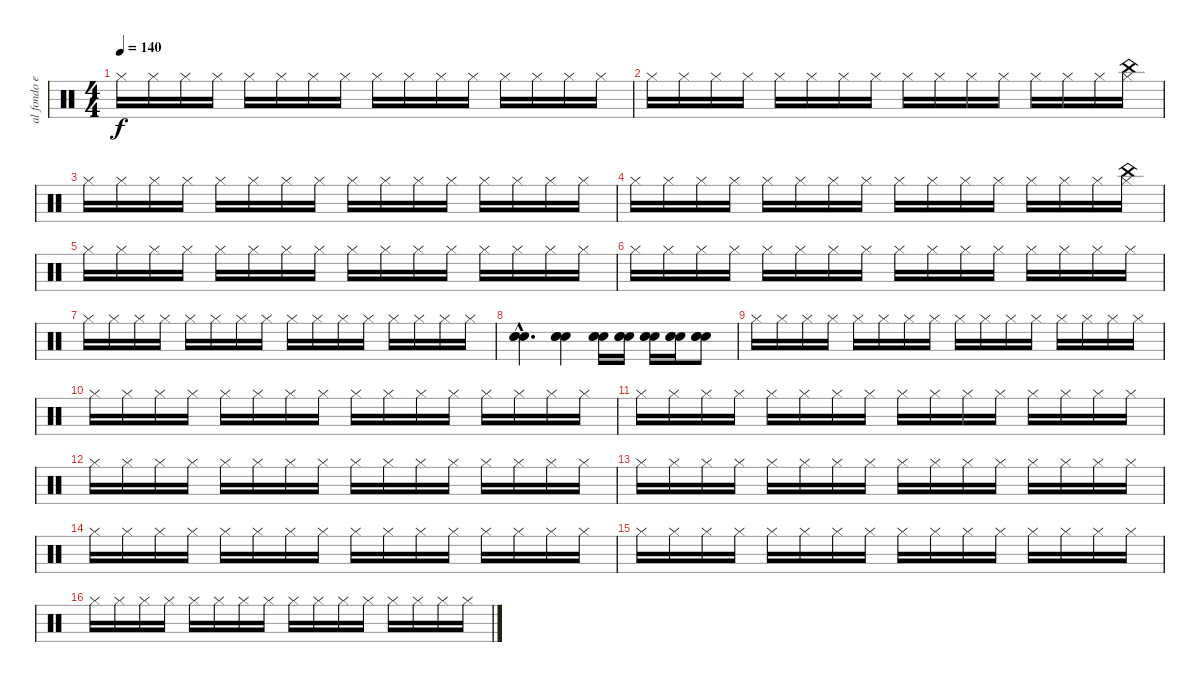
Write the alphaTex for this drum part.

\track ("al fondo en la bateria Mr Pedro Andreu" "al fondo e") {instrument percussion}
\staff {score}
\articulation defaults
\ts (4 4)
\tempo 140
\clef neutral
\ks c "Hi-Hat (closed)".16{dy f} "Hi-Hat (closed)".16 "Hi-Hat (closed)".16 "Hi-Hat (closed)".16 "Hi-Hat (closed)".16 "Hi-Hat (closed)".16 "Hi-Hat (closed)".16 "Hi-Hat (closed)".16 "Hi-Hat (closed)".16 "Hi-Hat (closed)".16 "Hi-Hat (closed)".16 "Hi-Hat (closed)".16 "Hi-Hat (closed)".16 "Hi-Hat (closed)".16 "Hi-Hat (closed)".16 "Hi-Hat (closed)".16
|
"Hi-Hat (closed)".16 "Hi-Hat (closed)".16 "Hi-Hat (closed)".16 "Hi-Hat (closed)".16 "Hi-Hat (closed)".16 "Hi-Hat (closed)".16 "Hi-Hat (closed)".16 "Hi-Hat (closed)".16 "Hi-Hat (closed)".16 "Hi-Hat (closed)".16 "Hi-Hat (closed)".16 "Hi-Hat (closed)".16 "Hi-Hat (closed)".16 "Hi-Hat (closed)".16 "Hi-Hat (closed)".16 ("Hi-Hat (closed)" "China (hit)").16 |
"Hi-Hat (closed)".16 "Hi-Hat (closed)".16 "Hi-Hat (closed)".16 "Hi-Hat (closed)".16 "Hi-Hat (closed)".16 "Hi-Hat (closed)".16 "Hi-Hat (closed)".16 "Hi-Hat (closed)".16 "Hi-Hat (closed)".16 "Hi-Hat (closed)".16 "Hi-Hat (closed)".16 "Hi-Hat (closed)".16 "Hi-Hat (closed)".16 "Hi-Hat (closed)".16 "Hi-Hat (closed)".16 "Hi-Hat (closed)".16 |
"Hi-Hat (closed)".16 "Hi-Hat (closed)".16 "Hi-Hat (closed)".16 "Hi-Hat (closed)".16 "Hi-Hat (closed)".16 "Hi-Hat (closed)".16 "Hi-Hat (closed)".16 "Hi-Hat (closed)".16 "Hi-Hat (closed)".16 "Hi-Hat (closed)".16 "Hi-Hat (closed)".16 "Hi-Hat (closed)".16 "Hi-Hat (closed)".16 "Hi-Hat (closed)".16 "Hi-Hat (closed)".16 ("Hi-Hat (closed)" "China (hit)").16 |
"Hi-Hat (closed)".16 "Hi-Hat (closed)".16 "Hi-Hat (closed)".16 "Hi-Hat (closed)".16 "Hi-Hat (closed)".16 "Hi-Hat (closed)".16 "Hi-Hat (closed)".16 "Hi-Hat (closed)".16 "Hi-Hat (closed)".16 "Hi-Hat (closed)".16 "Hi-Hat (closed)".16 "Hi-Hat (closed)".16 "Hi-Hat (closed)".16 "Hi-Hat (closed)".16 "Hi-Hat (closed)".16 "Hi-Hat (closed)".16 |
"Hi-Hat (closed)".16 "Hi-Hat (closed)".16 "Hi-Hat (closed)".16 "Hi-Hat (closed)".16 "Hi-Hat (closed)".16 "Hi-Hat (closed)".16 "Hi-Hat (closed)".16 "Hi-Hat (closed)".16 "Hi-Hat (closed)".16 "Hi-Hat (closed)".16 "Hi-Hat (closed)".16 "Hi-Hat (closed)".16 "Hi-Hat (closed)".16 "Hi-Hat (closed)".16 "Hi-Hat (closed)".16 "Hi-Hat (closed)".16 |
"Hi-Hat (closed)".16 "Hi-Hat (closed)".16 "Hi-Hat (closed)".16 "Hi-Hat (closed)".16 "Hi-Hat (closed)".16 "Hi-Hat (closed)".16 "Hi-Hat (closed)".16 "Hi-Hat (closed)".16 "Hi-Hat (closed)".16 "Hi-Hat (closed)".16 "Hi-Hat (closed)".16 "Hi-Hat (closed)".16 "Hi-Hat (closed)".16 "Hi-Hat (closed)".16 "Hi-Hat (closed)".16 "Hi-Hat (closed)".16 |
("Snare (hit) 2"{hac} "Snare (hit) 2"{hac} "Snare (hit) 2"{hac}).4{d} ("Snare (hit) 2" "Snare (hit) 2" "Snare (hit) 2").4 ("Snare (hit) 2" "Snare (hit) 2" "Snare (hit) 2").16 ("Snare (hit) 2" "Snare (hit) 2" "Snare (hit) 2").16 ("Snare (hit) 2" "Snare (hit) 2" "Snare (hit) 2").16 ("Snare (hit) 2" "Snare (hit) 2" "Snare (hit) 2").16 ("Snare (hit) 2" "Snare (hit) 2" "Snare (hit) 2").8 |
"Hi-Hat (closed)".16 "Hi-Hat (closed)".16 "Hi-Hat (closed)".16 "Hi-Hat (closed)".16 "Hi-Hat (closed)".16 "Hi-Hat (closed)".16 "Hi-Hat (closed)".16 "Hi-Hat (closed)".16 "Hi-Hat (closed)".16 "Hi-Hat (closed)".16 "Hi-Hat (closed)".16 "Hi-Hat (closed)".16 "Hi-Hat (closed)".16 "Hi-Hat (closed)".16 "Hi-Hat (closed)".16 "Hi-Hat (closed)".16 |
"Hi-Hat (closed)".16 "Hi-Hat (closed)".16 "Hi-Hat (closed)".16 "Hi-Hat (closed)".16 "Hi-Hat (closed)".16 "Hi-Hat (closed)".16 "Hi-Hat (closed)".16 "Hi-Hat (closed)".16 "Hi-Hat (closed)".16 "Hi-Hat (closed)".16 "Hi-Hat (closed)".16 "Hi-Hat (closed)".16 "Hi-Hat (closed)".16 "Hi-Hat (closed)".16 "Hi-Hat (closed)".16 "Hi-Hat (closed)".16 |
"Hi-Hat (closed)".16 "Hi-Hat (closed)".16 "Hi-Hat (closed)".16 "Hi-Hat (closed)".16 "Hi-Hat (closed)".16 "Hi-Hat (closed)".16 "Hi-Hat (closed)".16 "Hi-Hat (closed)".16 "Hi-Hat (closed)".16 "Hi-Hat (closed)".16 "Hi-Hat (closed)".16 "Hi-Hat (closed)".16 "Hi-Hat (closed)".16 "Hi-Hat (closed)".16 "Hi-Hat (closed)".16 "Hi-Hat (closed)".16 |
"Hi-Hat (closed)".16 "Hi-Hat (closed)".16 "Hi-Hat (closed)".16 "Hi-Hat (closed)".16 "Hi-Hat (closed)".16 "Hi-Hat (closed)".16 "Hi-Hat (closed)".16 "Hi-Hat (closed)".16 "Hi-Hat (closed)".16 "Hi-Hat (closed)".16 "Hi-Hat (closed)".16 "Hi-Hat (closed)".16 "Hi-Hat (closed)".16 "Hi-Hat (closed)".16 "Hi-Hat (closed)".16 "Hi-Hat (closed)".16 |
"Hi-Hat (closed)".16 "Hi-Hat (closed)".16 "Hi-Hat (closed)".16 "Hi-Hat (closed)".16 "Hi-Hat (closed)".16 "Hi-Hat (closed)".16 "Hi-Hat (closed)".16 "Hi-Hat (closed)".16 "Hi-Hat (closed)".16 "Hi-Hat (closed)".16 "Hi-Hat (closed)".16 "Hi-Hat (closed)".16 "Hi-Hat (closed)".16 "Hi-Hat (closed)".16 "Hi-Hat (closed)".16 "Hi-Hat (closed)".16 |
"Hi-Hat (closed)".16 "Hi-Hat (closed)".16 "Hi-Hat (closed)".16 "Hi-Hat (closed)".16 "Hi-Hat (closed)".16 "Hi-Hat (closed)".16 "Hi-Hat (closed)".16 "Hi-Hat (closed)".16 "Hi-Hat (closed)".16 "Hi-Hat (closed)".16 "Hi-Hat (closed)".16 "Hi-Hat (closed)".16 "Hi-Hat (closed)".16 "Hi-Hat (closed)".16 "Hi-Hat (closed)".16 "Hi-Hat (closed)".16 |
"Hi-Hat (closed)".16 "Hi-Hat (closed)".16 "Hi-Hat (closed)".16 "Hi-Hat (closed)".16 "Hi-Hat (closed)".16 "Hi-Hat (closed)".16 "Hi-Hat (closed)".16 "Hi-Hat (closed)".16 "Hi-Hat (closed)".16 "Hi-Hat (closed)".16 "Hi-Hat (closed)".16 "Hi-Hat (closed)".16 "Hi-Hat (closed)".16 "Hi-Hat (closed)".16 "Hi-Hat (closed)".16 "Hi-Hat (closed)".16 |
"Hi-Hat (closed)".16 "Hi-Hat (closed)".16 "Hi-Hat (closed)".16 "Hi-Hat (closed)".16 "Hi-Hat (closed)".16 "Hi-Hat (closed)".16 "Hi-Hat (closed)".16 "Hi-Hat (closed)".16 "Hi-Hat (closed)".16 "Hi-Hat (closed)".16 "Hi-Hat (closed)".16 "Hi-Hat (closed)".16 "Hi-Hat (closed)".16 "Hi-Hat (closed)".16 "Hi-Hat (closed)".16 "Hi-Hat (closed)".16
